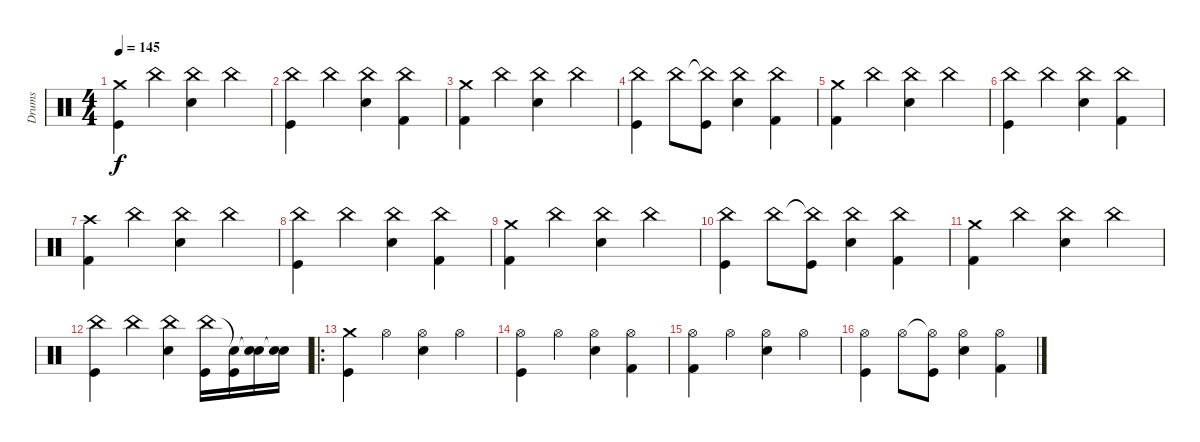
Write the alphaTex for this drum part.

\track ("Drums" "Drums") {instrument percussion}
\staff {score}
\articulation defaults
\ts (4 4)
\tempo 145
\clef neutral
\ks c
("Crash medium (hit)" "Kick (hit)").4{dy f} "China (hit)".4 ("China (hit)" "Electric Snare (hit)").4 "China (hit)".4 |
("China (hit)" "Kick (hit)").4 "China (hit)".4 ("China (hit)" "Electric Snare (hit)").4 ("China (hit)" "Kick (hit) 2").4 |
("Crash medium (hit)" "Kick (hit) 2").4 "China (hit)".4 ("China (hit)" "Electric Snare (hit)").4 "China (hit)".4 |
("China (hit)" "Kick (hit)").4 "China (hit)".8 ("China (hit)"{t} "Kick (hit)").8 ("China (hit)" "Electric Snare (hit)").4 ("China (hit)" "Kick (hit) 2").4 |
("Crash medium (hit)" "Kick (hit) 2").4 "China (hit)".4 ("China (hit)" "Electric Snare (hit)").4 "China (hit)".4 |
("China (hit)" "Kick (hit)").4 "China (hit)".4 ("China (hit)" "Electric Snare (hit)").4 ("China (hit)" "Kick (hit) 2").4 |
("Crash high (hit)" "Kick (hit) 2").4 "China (hit)".4 ("China (hit)" "Electric Snare (hit)").4 "China (hit)".4 |
("China (hit)" "Kick (hit)").4 "China (hit)".4 ("China (hit)" "Electric Snare (hit)").4 ("China (hit)" "Kick (hit) 2").4 |
("Crash medium (hit)" "Kick (hit) 2").4 "China (hit)".4 ("China (hit)" "Electric Snare (hit)").4 "China (hit)".4 |
("China (hit)" "Kick (hit)").4 "China (hit)".8 ("China (hit)"{t} "Kick (hit)").8 ("China (hit)" "Electric Snare (hit)").4 ("China (hit)" "Kick (hit) 2").4 |
("Crash medium (hit)" "Kick (hit) 2").4 "China (hit)".4 ("China (hit)" "Electric Snare (hit)").4 "China (hit)".4 |
("China (hit)" "Kick (hit)").4 "China (hit)".4 ("China (hit)" "Electric Snare (hit)").4 ("China (hit)" "Kick (hit)").16 ("Snare (hit)"{t} "Kick (hit)").16 ("Snare (hit)"{t} "Electric Snare (hit)").16 ("Snare (hit)"{t} "Electric Snare (hit)").16 |
\ro
("Crash medium (hit)" "Kick (hit)").4 "Hi-Hat (open)".4 ("Hi-Hat (open)" "Electric Snare (hit)").4 "Hi-Hat (open)".4 |
("Hi-Hat (open)" "Kick (hit)").4 "Hi-Hat (open)".4 ("Hi-Hat (open)" "Electric Snare (hit)").4 ("Hi-Hat (open)" "Kick (hit) 2").4 |
("Hi-Hat (open)" "Kick (hit) 2").4 "Hi-Hat (open)".4 ("Hi-Hat (open)" "Electric Snare (hit)").4 "Hi-Hat (open)".4 |
("Hi-Hat (open)" "Kick (hit)").4 "Hi-Hat (open)".8 ("Hi-Hat (open)"{t} "Kick (hit)").8 ("Hi-Hat (open)" "Electric Snare (hit)").4 ("Hi-Hat (open)" "Kick (hit) 2").4
